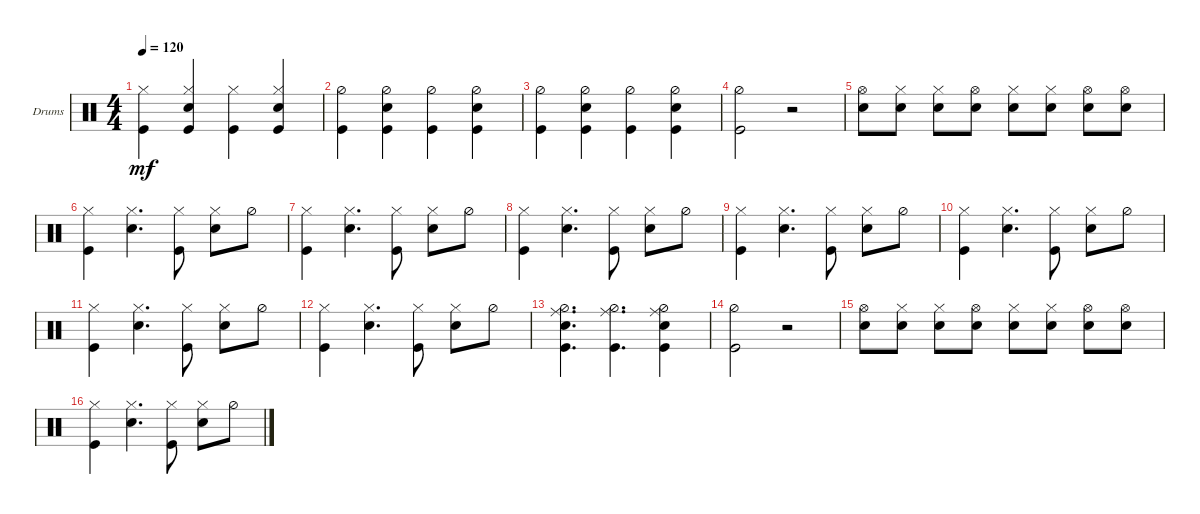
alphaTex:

\defaultSystemsLayout 4
\bracketExtendMode groupsimilarinstruments
\firstSystemTrackNameOrientation horizontal
\otherSystemsTrackNameOrientation horizontal
\track ("Drumkit" "Drums") {instrument percussion}
\staff {score}
\articulation defaults
\ts (4 4)
\tempo 120
\clef neutral
\ks c
("Kick (hit)" "Hi-Hat (closed)").4{dy mf} ("Kick (hit)" "Hi-Hat (closed)" "Snare (hit) 2").4 ("Kick (hit)" "Hi-Hat (closed)").4 ("Kick (hit)" "Hi-Hat (closed)" "Snare (hit) 2").4 |
("Kick (hit)" "Hi-Hat (half)").4 ("Kick (hit)" "Hi-Hat (half)" "Snare (hit) 2").4 ("Kick (hit)" "Hi-Hat (half)").4 ("Kick (hit)" "Hi-Hat (half)" "Snare (hit) 2").4 |
("Kick (hit)" "Hi-Hat (half)").4 ("Kick (hit)" "Snare (hit) 2" "Hi-Hat (half)").4 ("Kick (hit)" "Hi-Hat (half)").4 ("Kick (hit)" "Snare (hit) 2" "Hi-Hat (half)").4 |
("Kick (hit)" "Hi-Hat (half)").2 r.2 |
("Snare (hit) 2" "Hi-Hat (open)").8 ("Snare (hit) 2" "Hi-Hat (closed)").8 ("Snare (hit) 2" "Hi-Hat (closed)").8 ("Snare (hit) 2" "Hi-Hat (open)").8 ("Snare (hit) 2" "Hi-Hat (closed)").8 ("Snare (hit) 2" "Hi-Hat (closed)").8 ("Snare (hit) 2" "Hi-Hat (open)").8 ("Snare (hit) 2" "Hi-Hat (open)").8 |
("Kick (hit)" "Hi-Hat (closed)").4 ("Snare (hit) 2" "Hi-Hat (closed)").4{d} ("Kick (hit)" "Hi-Hat (closed)").8 ("Snare (hit) 2" "Hi-Hat (closed)").8 "Hi-Hat (half)".8 |
("Kick (hit)" "Hi-Hat (closed)").4 ("Snare (hit) 2" "Hi-Hat (closed)").4{d} ("Kick (hit)" "Hi-Hat (closed)").8 ("Snare (hit) 2" "Hi-Hat (closed)").8 "Hi-Hat (half)".8 |
("Kick (hit)" "Hi-Hat (closed)").4 ("Snare (hit) 2" "Hi-Hat (closed)").4{d} ("Kick (hit)" "Hi-Hat (closed)").8 ("Snare (hit) 2" "Hi-Hat (closed)").8 "Hi-Hat (half)".8 |
("Kick (hit)" "Hi-Hat (closed)").4 ("Snare (hit) 2" "Hi-Hat (closed)").4{d} ("Kick (hit)" "Hi-Hat (closed)").8 ("Snare (hit) 2" "Hi-Hat (closed)").8 "Hi-Hat (half)".8 |
("Kick (hit)" "Hi-Hat (closed)").4 ("Snare (hit) 2" "Hi-Hat (closed)").4{d} ("Kick (hit)" "Hi-Hat (closed)").8 ("Snare (hit) 2" "Hi-Hat (closed)").8 "Hi-Hat (half)".8 |
("Kick (hit)" "Hi-Hat (closed)").4 ("Snare (hit) 2" "Hi-Hat (closed)").4{d} ("Kick (hit)" "Hi-Hat (closed)").8 ("Snare (hit) 2" "Hi-Hat (closed)").8 "Hi-Hat (half)".8 |
("Kick (hit)" "Hi-Hat (closed)").4 ("Snare (hit) 2" "Hi-Hat (closed)").4{d} ("Kick (hit)" "Hi-Hat (closed)").8 ("Snare (hit) 2" "Hi-Hat (closed)").8 "Hi-Hat (half)".8 |
("Kick (hit)" "Ride (middle)" "Snare (hit) 2" "Hi-Hat (half)").4{d} ("Kick (hit)" "Ride (middle)" "Hi-Hat (half)").4{d} ("Kick (hit)" "Snare (hit) 2" "Ride (middle)" "Hi-Hat (half)").4 |
("Kick (hit)" "Hi-Hat (half)").2 r.2 |
("Snare (hit) 2" "Hi-Hat (open)").8 ("Snare (hit) 2" "Hi-Hat (closed)").8 ("Snare (hit) 2" "Hi-Hat (closed)").8 ("Snare (hit) 2" "Hi-Hat (open)").8 ("Snare (hit) 2" "Hi-Hat (closed)").8 ("Snare (hit) 2" "Hi-Hat (closed)").8 ("Snare (hit) 2" "Hi-Hat (open)").8 ("Snare (hit) 2" "Hi-Hat (open)").8 |
("Kick (hit)" "Hi-Hat (closed)").4 ("Snare (hit) 2" "Hi-Hat (closed)").4{d} ("Kick (hit)" "Hi-Hat (closed)").8 ("Snare (hit) 2" "Hi-Hat (closed)").8 "Hi-Hat (half)".8
